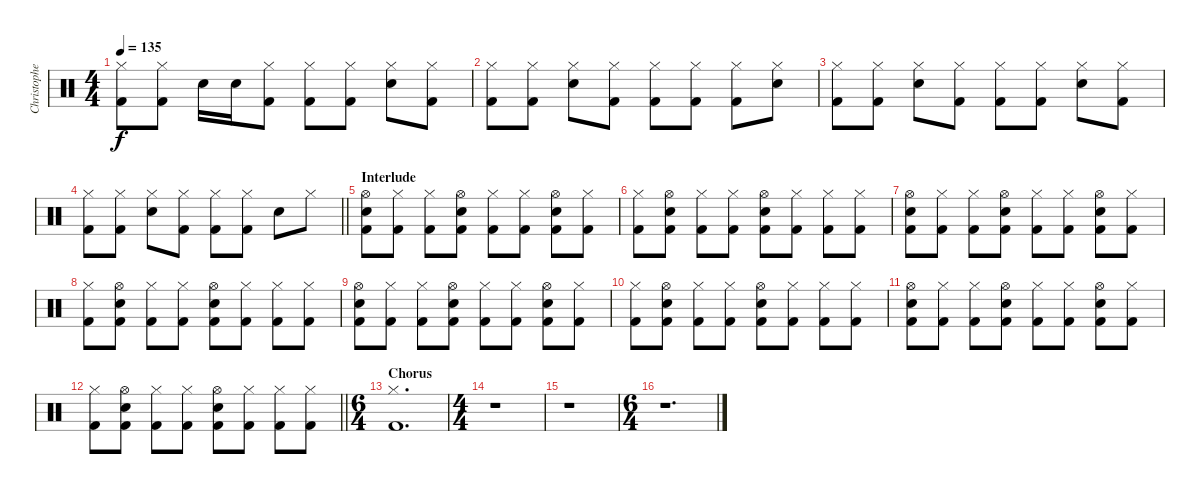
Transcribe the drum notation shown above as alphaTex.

\track ("Christopher - Drums" "Christophe") {instrument percussion}
\staff {score}
\articulation defaults
\ts (4 4)
\tempo 135
\clef neutral
\ks c
("Hi-Hat (closed)" "Kick (hit) 2").8{dy f} ("Hi-Hat (closed)" "Kick (hit) 2").8 "Snare (hit) 2".16 "Snare (hit) 2".16 ("Hi-Hat (closed)" "Kick (hit) 2").8 ("Hi-Hat (closed)" "Kick (hit) 2").8 ("Hi-Hat (closed)" "Kick (hit) 2").8 ("Hi-Hat (closed)" "Snare (hit) 2").8 ("Hi-Hat (closed)" "Kick (hit) 2").8 |
("Hi-Hat (closed)" "Kick (hit) 2").8 ("Hi-Hat (closed)" "Kick (hit) 2").8 ("Hi-Hat (closed)" "Snare (hit) 2").8 ("Hi-Hat (closed)" "Kick (hit) 2").8 ("Hi-Hat (closed)" "Kick (hit) 2").8 ("Hi-Hat (closed)" "Kick (hit) 2").8 ("Hi-Hat (closed)" "Kick (hit) 2").8 ("Hi-Hat (closed)" "Snare (hit) 2").8 |
("Hi-Hat (closed)" "Kick (hit) 2").8 ("Hi-Hat (closed)" "Kick (hit) 2").8 ("Hi-Hat (closed)" "Snare (hit) 2").8 ("Hi-Hat (closed)" "Kick (hit) 2").8 ("Hi-Hat (closed)" "Kick (hit) 2").8 ("Hi-Hat (closed)" "Kick (hit) 2").8 ("Hi-Hat (closed)" "Snare (hit) 2").8 ("Hi-Hat (closed)" "Kick (hit) 2").8 |
\barLineRight lightlight
("Hi-Hat (closed)" "Kick (hit) 2").8 ("Hi-Hat (closed)" "Kick (hit) 2").8 ("Hi-Hat (closed)" "Snare (hit) 2").8 ("Hi-Hat (closed)" "Kick (hit) 2").8 ("Hi-Hat (closed)" "Kick (hit) 2").8 ("Hi-Hat (closed)" "Kick (hit) 2").8 "Snare (hit) 2".8 "Hi-Hat (closed)".8 |
\section ("" "Interlude")
("Hi-Hat (open)" "Snare (hit) 2" "Kick (hit) 2").8 ("Hi-Hat (closed)" "Kick (hit) 2").8 ("Hi-Hat (closed)" "Kick (hit) 2").8 ("Hi-Hat (open)" "Snare (hit) 2" "Kick (hit) 2").8 ("Hi-Hat (closed)" "Kick (hit) 2").8 ("Hi-Hat (closed)" "Kick (hit) 2").8 ("Hi-Hat (open)" "Snare (hit) 2" "Kick (hit) 2").8 ("Hi-Hat (closed)" "Kick (hit) 2").8 |
("Hi-Hat (closed)" "Kick (hit) 2").8 ("Hi-Hat (open)" "Snare (hit) 2" "Kick (hit) 2").8 ("Hi-Hat (closed)" "Kick (hit) 2").8 ("Hi-Hat (closed)" "Kick (hit) 2").8 ("Hi-Hat (open)" "Snare (hit) 2" "Kick (hit) 2").8 ("Hi-Hat (closed)" "Kick (hit) 2").8 ("Hi-Hat (closed)" "Kick (hit) 2").8 ("Hi-Hat (closed)" "Kick (hit) 2").8 |
("Hi-Hat (open)" "Snare (hit) 2" "Kick (hit) 2").8 ("Hi-Hat (closed)" "Kick (hit) 2").8 ("Hi-Hat (closed)" "Kick (hit) 2").8 ("Hi-Hat (open)" "Snare (hit) 2" "Kick (hit) 2").8 ("Hi-Hat (closed)" "Kick (hit) 2").8 ("Hi-Hat (closed)" "Kick (hit) 2").8 ("Hi-Hat (open)" "Snare (hit) 2" "Kick (hit) 2").8 ("Hi-Hat (closed)" "Kick (hit) 2").8 |
("Hi-Hat (closed)" "Kick (hit) 2").8 ("Hi-Hat (open)" "Snare (hit) 2" "Kick (hit) 2").8 ("Hi-Hat (closed)" "Kick (hit) 2").8 ("Hi-Hat (closed)" "Kick (hit) 2").8 ("Hi-Hat (open)" "Snare (hit) 2" "Kick (hit) 2").8 ("Hi-Hat (closed)" "Kick (hit) 2").8 ("Hi-Hat (closed)" "Kick (hit) 2").8 ("Hi-Hat (closed)" "Kick (hit) 2").8 |
("Hi-Hat (open)" "Snare (hit) 2" "Kick (hit) 2").8 ("Hi-Hat (closed)" "Kick (hit) 2").8 ("Hi-Hat (closed)" "Kick (hit) 2").8 ("Hi-Hat (open)" "Snare (hit) 2" "Kick (hit) 2").8 ("Hi-Hat (closed)" "Kick (hit) 2").8 ("Hi-Hat (closed)" "Kick (hit) 2").8 ("Hi-Hat (open)" "Snare (hit) 2" "Kick (hit) 2").8 ("Hi-Hat (closed)" "Kick (hit) 2").8 |
("Hi-Hat (closed)" "Kick (hit) 2").8 ("Hi-Hat (open)" "Snare (hit) 2" "Kick (hit) 2").8 ("Hi-Hat (closed)" "Kick (hit) 2").8 ("Hi-Hat (closed)" "Kick (hit) 2").8 ("Hi-Hat (open)" "Snare (hit) 2" "Kick (hit) 2").8 ("Hi-Hat (closed)" "Kick (hit) 2").8 ("Hi-Hat (closed)" "Kick (hit) 2").8 ("Hi-Hat (closed)" "Kick (hit) 2").8 |
("Hi-Hat (open)" "Snare (hit) 2" "Kick (hit) 2").8 ("Hi-Hat (closed)" "Kick (hit) 2").8 ("Hi-Hat (closed)" "Kick (hit) 2").8 ("Hi-Hat (open)" "Snare (hit) 2" "Kick (hit) 2").8 ("Hi-Hat (closed)" "Kick (hit) 2").8 ("Hi-Hat (closed)" "Kick (hit) 2").8 ("Hi-Hat (open)" "Snare (hit) 2" "Kick (hit) 2").8 ("Hi-Hat (closed)" "Kick (hit) 2").8 |
\barLineRight lightlight
("Hi-Hat (closed)" "Kick (hit) 2").8 ("Hi-Hat (open)" "Snare (hit) 2" "Kick (hit) 2").8 ("Hi-Hat (closed)" "Kick (hit) 2").8 ("Hi-Hat (closed)" "Kick (hit) 2").8 ("Hi-Hat (open)" "Snare (hit) 2" "Kick (hit) 2").8 ("Hi-Hat (closed)" "Kick (hit) 2").8 ("Hi-Hat (closed)" "Kick (hit) 2").8 ("Hi-Hat (closed)" "Kick (hit) 2").8 |
\ts (6 4)
\section ("" "Chorus")
("Hi-Hat (closed)" "Kick (hit) 2").1{d} |
\ts (4 4)
r.1 |
r.1 |
\ts (6 4)
r.1{d}
